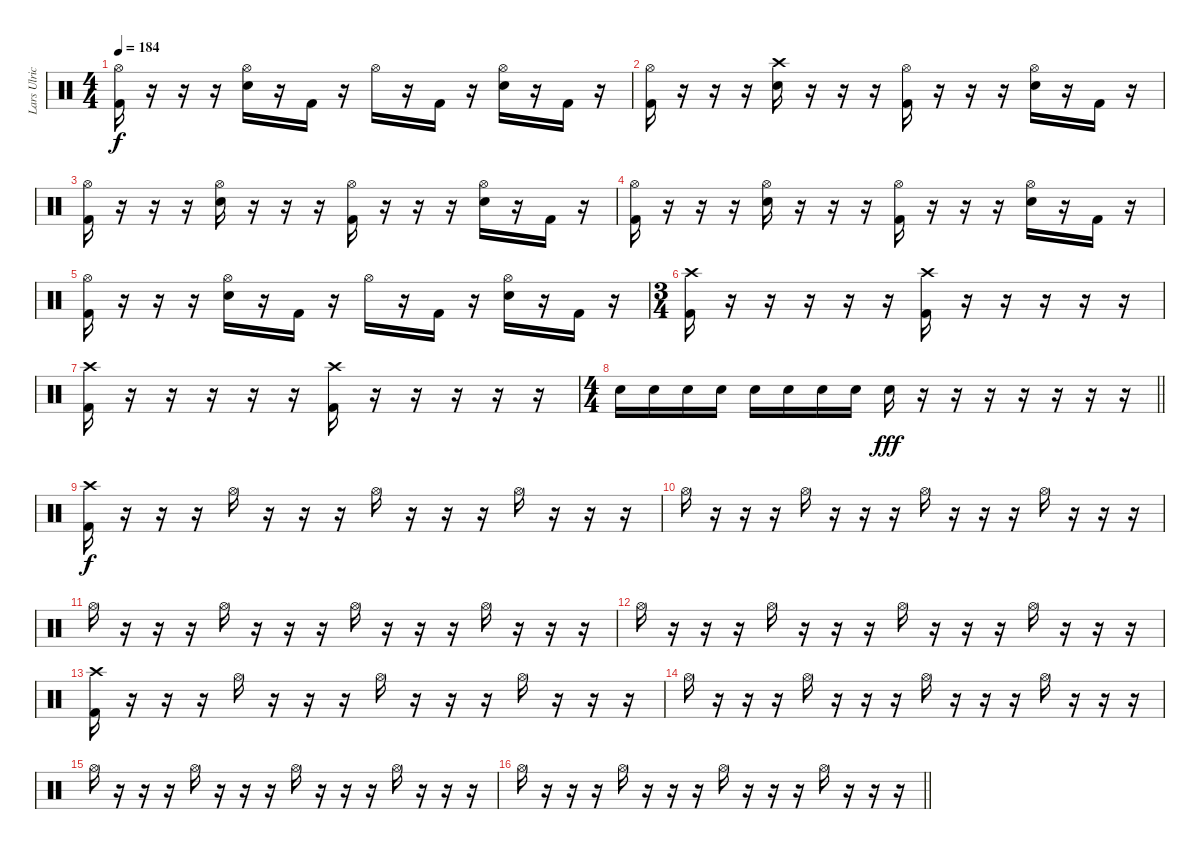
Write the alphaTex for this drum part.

\track ("Lars Ulrich" "Lars Ulric") {instrument percussion}
\staff {score}
\articulation defaults
\ts (4 4)
\tempo 184
\clef neutral
\ks c
("Hi-Hat (open)" "Kick (hit) 2").16{dy f} r.16 r.16 r.16 ("Electric Snare (hit)" "Hi-Hat (open)").16 r.16 "Kick (hit) 2".16 r.16 "Hi-Hat (open)".16 r.16 "Kick (hit) 2".16 r.16 ("Electric Snare (hit)" "Hi-Hat (open)").16 r.16 "Kick (hit) 2".16 r.16 |
("Hi-Hat (open)" "Kick (hit) 2").16 r.16 r.16 r.16 ("Crash high (hit)" "Electric Snare (hit)").16 r.16 r.16 r.16 ("Hi-Hat (open)" "Kick (hit) 2").16 r.16 r.16 r.16 ("Electric Snare (hit)" "Hi-Hat (open)").16 r.16 "Kick (hit) 2".16 r.16 |
("Hi-Hat (open)" "Kick (hit) 2").16 r.16 r.16 r.16 ("Electric Snare (hit)" "Hi-Hat (open)").16 r.16 r.16 r.16 ("Hi-Hat (open)" "Kick (hit) 2").16 r.16 r.16 r.16 ("Electric Snare (hit)" "Hi-Hat (open)").16 r.16 "Kick (hit) 2".16 r.16 |
("Hi-Hat (open)" "Kick (hit) 2").16 r.16 r.16 r.16 ("Electric Snare (hit)" "Hi-Hat (open)").16 r.16 r.16 r.16 ("Hi-Hat (open)" "Kick (hit) 2").16 r.16 r.16 r.16 ("Electric Snare (hit)" "Hi-Hat (open)").16 r.16 "Kick (hit) 2".16 r.16 |
("Hi-Hat (open)" "Kick (hit) 2").16 r.16 r.16 r.16 ("Electric Snare (hit)" "Hi-Hat (open)").16 r.16 "Kick (hit) 2".16 r.16 "Hi-Hat (open)".16 r.16 "Kick (hit) 2".16 r.16 ("Electric Snare (hit)" "Hi-Hat (open)").16 r.16 "Kick (hit) 2".16 r.16 |
\ts (3 4)
("Crash high (hit)" "Kick (hit) 2").16 r.16 r.16 r.16 r.16 r.16 ("Crash high (hit)" "Kick (hit) 2").16 r.16 r.16 r.16 r.16 r.16 |
("Crash high (hit)" "Kick (hit) 2").16 r.16 r.16 r.16 r.16 r.16 ("Crash high (hit)" "Kick (hit) 2").16 r.16 r.16 r.16 r.16 r.16 |
\ts (4 4)
\barLineRight lightlight "Electric Snare (hit)".16 "Electric Snare (hit)".16 "Electric Snare (hit)".16 "Electric Snare (hit)".16 "Electric Snare (hit)".16 "Electric Snare (hit)".16 "Electric Snare (hit)".16 "Electric Snare (hit)".16 "Electric Snare (hit)".16{dy fff}
r.16 r.16 r.16 r.16 r.16 r.16 r.16 |
\section ("" "")
("Crash high (hit)" "Kick (hit) 2").16{dy f} r.16 r.16 r.16 "Hi-Hat (open)".16 r.16 r.16 r.16 "Hi-Hat (open)".16 r.16 r.16 r.16 "Hi-Hat (open)".16 r.16 r.16 r.16 |
"Hi-Hat (open)".16 r.16 r.16 r.16 "Hi-Hat (open)".16 r.16 r.16 r.16 "Hi-Hat (open)".16 r.16 r.16 r.16 "Hi-Hat (open)".16 r.16 r.16 r.16 |
"Hi-Hat (open)".16 r.16 r.16 r.16 "Hi-Hat (open)".16 r.16 r.16 r.16 "Hi-Hat (open)".16 r.16 r.16 r.16 "Hi-Hat (open)".16 r.16 r.16 r.16 |
"Hi-Hat (open)".16 r.16 r.16 r.16 "Hi-Hat (open)".16 r.16 r.16 r.16 "Hi-Hat (open)".16 r.16 r.16 r.16 "Hi-Hat (open)".16 r.16 r.16 r.16 |
("Crash high (hit)" "Kick (hit) 2").16 r.16 r.16 r.16 "Hi-Hat (open)".16 r.16 r.16 r.16 "Hi-Hat (open)".16 r.16 r.16 r.16 "Hi-Hat (open)".16 r.16 r.16 r.16 |
"Hi-Hat (open)".16 r.16 r.16 r.16 "Hi-Hat (open)".16 r.16 r.16 r.16 "Hi-Hat (open)".16 r.16 r.16 r.16 "Hi-Hat (open)".16 r.16 r.16 r.16 |
"Hi-Hat (open)".16 r.16 r.16 r.16 "Hi-Hat (open)".16 r.16 r.16 r.16 "Hi-Hat (open)".16 r.16 r.16 r.16 "Hi-Hat (open)".16 r.16 r.16 r.16 |
\barLineRight lightlight "Hi-Hat (open)".16
r.16 r.16 r.16 "Hi-Hat (open)".16 r.16 r.16 r.16 "Hi-Hat (open)".16 r.16 r.16 r.16 "Hi-Hat (open)".16 r.16 r.16 r.16
